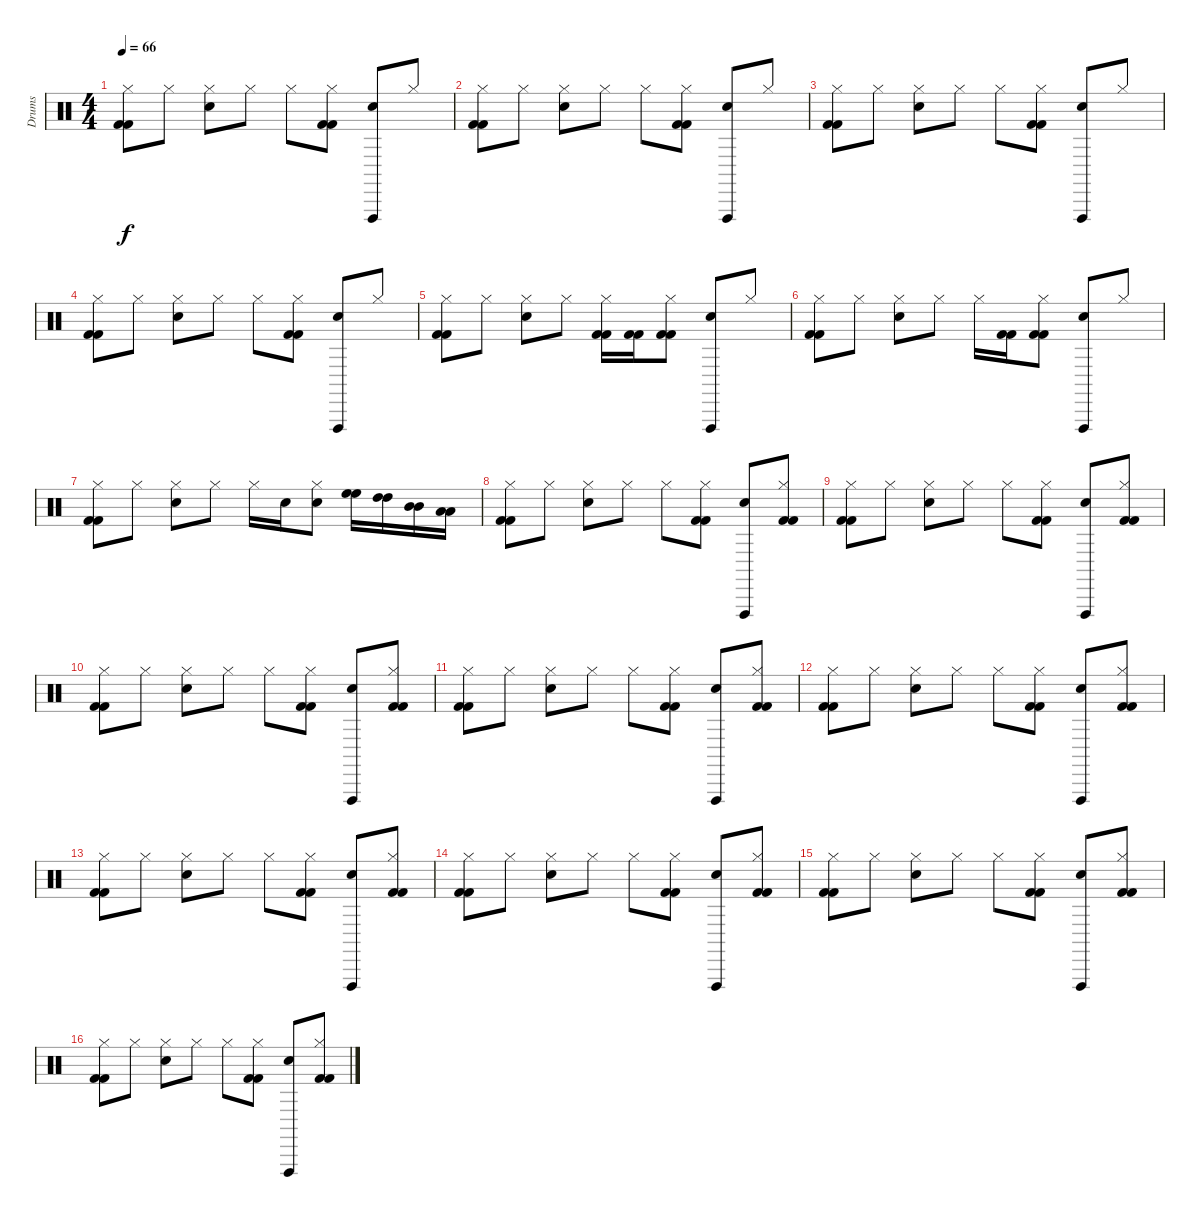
\track ("Drums" "Drums") {instrument percussion}
\staff {score}
\articulation defaults
\ts (4 4)
\tempo 66
\clef neutral
\ks c
("Hi-Hat (closed)" "Kick (hit) 2" "Kick (hit) 2").8{dy f} "Hi-Hat (closed)".8 ("Hi-Hat (closed)" "Snare (hit) 2").8 "Hi-Hat (closed)".8 "Hi-Hat (closed)".8 ("Hi-Hat (closed)" "Kick (hit) 2" "Kick (hit) 2").8 ("Vibraslap (hit)" "Snare (hit) 2").8 "Hi-Hat (closed)".8 |
("Hi-Hat (closed)" "Kick (hit) 2" "Kick (hit) 2").8 "Hi-Hat (closed)".8 ("Hi-Hat (closed)" "Snare (hit) 2").8 "Hi-Hat (closed)".8 "Hi-Hat (closed)".8 ("Hi-Hat (closed)" "Kick (hit) 2" "Kick (hit) 2").8 ("Vibraslap (hit)" "Snare (hit) 2").8 "Hi-Hat (closed)".8 |
("Hi-Hat (closed)" "Kick (hit) 2" "Kick (hit) 2").8 "Hi-Hat (closed)".8 ("Hi-Hat (closed)" "Snare (hit) 2").8 "Hi-Hat (closed)".8 "Hi-Hat (closed)".8 ("Hi-Hat (closed)" "Kick (hit) 2" "Kick (hit) 2").8 ("Vibraslap (hit)" "Snare (hit) 2").8 "Hi-Hat (closed)".8 |
("Hi-Hat (closed)" "Kick (hit) 2" "Kick (hit) 2").8 "Hi-Hat (closed)".8 ("Hi-Hat (closed)" "Snare (hit) 2").8 "Hi-Hat (closed)".8 "Hi-Hat (closed)".8 ("Hi-Hat (closed)" "Kick (hit) 2" "Kick (hit) 2").8 ("Vibraslap (hit)" "Snare (hit) 2").8 "Hi-Hat (closed)".8 |
("Hi-Hat (closed)" "Kick (hit) 2" "Kick (hit) 2").8 "Hi-Hat (closed)".8 ("Hi-Hat (closed)" "Snare (hit) 2").8 "Hi-Hat (closed)".8 ("Hi-Hat (closed)" "Kick (hit) 2" "Kick (hit) 2").16 ("Kick (hit) 2" "Kick (hit) 2").16 ("Hi-Hat (closed)" "Kick (hit) 2" "Kick (hit) 2").8 ("Vibraslap (hit)" "Snare (hit) 2").8 "Hi-Hat (closed)".8 |
("Hi-Hat (closed)" "Kick (hit) 2" "Kick (hit) 2").8 "Hi-Hat (closed)".8 ("Hi-Hat (closed)" "Snare (hit) 2").8 "Hi-Hat (closed)".8 "Hi-Hat (closed)".16 ("Kick (hit) 2" "Kick (hit) 2").16 ("Hi-Hat (closed)" "Kick (hit) 2" "Kick (hit) 2").8 ("Vibraslap (hit)" "Snare (hit) 2").8 "Hi-Hat (closed)".8 |
("Hi-Hat (closed)" "Kick (hit) 2" "Kick (hit) 2").8 "Hi-Hat (closed)".8 ("Hi-Hat (closed)" "Snare (hit) 2").8 "Hi-Hat (closed)".8 "Hi-Hat (closed)".16 "Snare (hit) 2".16 ("Hi-Hat (closed)" "Snare (hit) 2").8 ("High Floor Tom (hit)" "High Floor Tom (hit)").16 ("High Tom (hit)" "High Tom (hit)").16 ("Mid Tom (hit)" "Mid Tom (hit)").16 ("Low Tom (hit)" "Low Tom (hit)").16 |
("Hi-Hat (closed)" "Kick (hit) 2" "Kick (hit) 2").8 "Hi-Hat (closed)".8 ("Hi-Hat (closed)" "Snare (hit) 2").8 "Hi-Hat (closed)".8 "Hi-Hat (closed)".8 ("Hi-Hat (closed)" "Kick (hit) 2" "Kick (hit) 2").8 ("Vibraslap (hit)" "Snare (hit) 2").8 ("Hi-Hat (closed)" "Kick (hit) 2" "Kick (hit) 2").8 |
("Hi-Hat (closed)" "Kick (hit) 2" "Kick (hit) 2").8 "Hi-Hat (closed)".8 ("Hi-Hat (closed)" "Snare (hit) 2").8 "Hi-Hat (closed)".8 "Hi-Hat (closed)".8 ("Hi-Hat (closed)" "Kick (hit) 2" "Kick (hit) 2").8 ("Vibraslap (hit)" "Snare (hit) 2").8 ("Hi-Hat (closed)" "Kick (hit) 2" "Kick (hit) 2").8 |
("Hi-Hat (closed)" "Kick (hit) 2" "Kick (hit) 2").8 "Hi-Hat (closed)".8 ("Hi-Hat (closed)" "Snare (hit) 2").8 "Hi-Hat (closed)".8 "Hi-Hat (closed)".8 ("Hi-Hat (closed)" "Kick (hit) 2" "Kick (hit) 2").8 ("Vibraslap (hit)" "Snare (hit) 2").8 ("Hi-Hat (closed)" "Kick (hit) 2" "Kick (hit) 2").8 |
("Hi-Hat (closed)" "Kick (hit) 2" "Kick (hit) 2").8 "Hi-Hat (closed)".8 ("Hi-Hat (closed)" "Snare (hit) 2").8 "Hi-Hat (closed)".8 "Hi-Hat (closed)".8 ("Hi-Hat (closed)" "Kick (hit) 2" "Kick (hit) 2").8 ("Vibraslap (hit)" "Snare (hit) 2").8 ("Hi-Hat (closed)" "Kick (hit) 2" "Kick (hit) 2").8 |
("Hi-Hat (closed)" "Kick (hit) 2" "Kick (hit) 2").8 "Hi-Hat (closed)".8 ("Hi-Hat (closed)" "Snare (hit) 2").8 "Hi-Hat (closed)".8 "Hi-Hat (closed)".8 ("Hi-Hat (closed)" "Kick (hit) 2" "Kick (hit) 2").8 ("Vibraslap (hit)" "Snare (hit) 2").8 ("Hi-Hat (closed)" "Kick (hit) 2" "Kick (hit) 2").8 |
("Hi-Hat (closed)" "Kick (hit) 2" "Kick (hit) 2").8 "Hi-Hat (closed)".8 ("Hi-Hat (closed)" "Snare (hit) 2").8 "Hi-Hat (closed)".8 "Hi-Hat (closed)".8 ("Hi-Hat (closed)" "Kick (hit) 2" "Kick (hit) 2").8 ("Vibraslap (hit)" "Snare (hit) 2").8 ("Hi-Hat (closed)" "Kick (hit) 2" "Kick (hit) 2").8 |
("Hi-Hat (closed)" "Kick (hit) 2" "Kick (hit) 2").8 "Hi-Hat (closed)".8 ("Hi-Hat (closed)" "Snare (hit) 2").8 "Hi-Hat (closed)".8 "Hi-Hat (closed)".8 ("Hi-Hat (closed)" "Kick (hit) 2" "Kick (hit) 2").8 ("Vibraslap (hit)" "Snare (hit) 2").8 ("Hi-Hat (closed)" "Kick (hit) 2" "Kick (hit) 2").8 |
("Hi-Hat (closed)" "Kick (hit) 2" "Kick (hit) 2").8 "Hi-Hat (closed)".8 ("Hi-Hat (closed)" "Snare (hit) 2").8 "Hi-Hat (closed)".8 "Hi-Hat (closed)".8 ("Hi-Hat (closed)" "Kick (hit) 2" "Kick (hit) 2").8 ("Vibraslap (hit)" "Snare (hit) 2").8 ("Hi-Hat (closed)" "Kick (hit) 2" "Kick (hit) 2").8 |
("Hi-Hat (closed)" "Kick (hit) 2" "Kick (hit) 2").8 "Hi-Hat (closed)".8 ("Hi-Hat (closed)" "Snare (hit) 2").8 "Hi-Hat (closed)".8 "Hi-Hat (closed)".8 ("Hi-Hat (closed)" "Kick (hit) 2" "Kick (hit) 2").8 ("Vibraslap (hit)" "Snare (hit) 2").8 ("Hi-Hat (closed)" "Kick (hit) 2" "Kick (hit) 2").8
